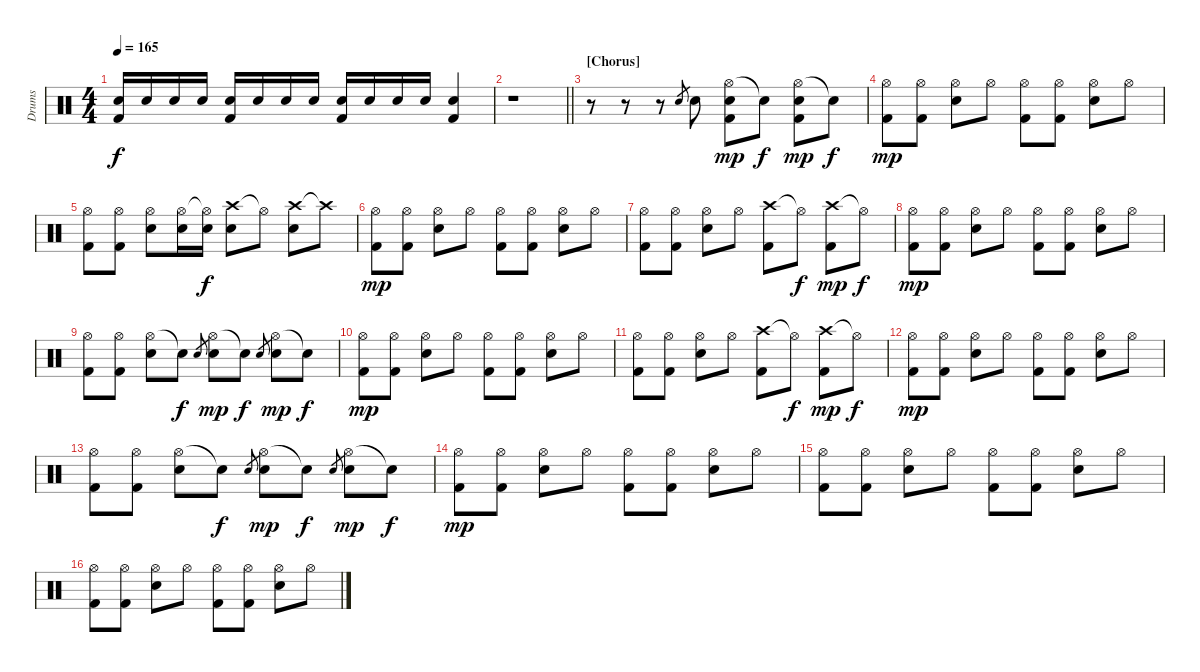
\track ("Drums" "Drums") {instrument percussion}
\staff {score}
\articulation defaults
\ts (4 4)
\tempo 165
\clef neutral
\ks c
("Electric Snare (hit)" "Kick (hit) 2").16{dy f} "Electric Snare (hit)".16 "Electric Snare (hit)".16 "Electric Snare (hit)".16 ("Electric Snare (hit)" "Kick (hit) 2").16 "Electric Snare (hit)".16 "Electric Snare (hit)".16 "Electric Snare (hit)".16 ("Electric Snare (hit)" "Kick (hit) 2").16 "Electric Snare (hit)".16 "Electric Snare (hit)".16 "Electric Snare (hit)".16 ("Electric Snare (hit)" "Kick (hit) 2").4 |
\barLineRight lightlight
r.1 |
\section ("" "[Chorus]")
r.8 r.8 r.8 "Electric Snare (hit)".8{gr} "Electric Snare (hit)".8 ("Hi-Hat (open)" "Electric Snare (hit)" "Kick (hit) 2").8{dy mp} "Snare (hit)"{t}.8{dy f} ("Hi-Hat (open)" "Electric Snare (hit)" "Kick (hit) 2").8{dy mp} "Snare (hit)"{t}.8{dy f} |
("Hi-Hat (open)" "Kick (hit) 2").8{dy mp} ("Hi-Hat (open)" "Kick (hit) 2").8 ("Hi-Hat (open)" "Electric Snare (hit)").8 "Hi-Hat (open)".8 ("Hi-Hat (open)" "Kick (hit) 2").8 ("Hi-Hat (open)" "Kick (hit) 2").8 ("Hi-Hat (open)" "Electric Snare (hit)").8 "Hi-Hat (open)".8 |
("Hi-Hat (open)" "Kick (hit) 2").8 ("Hi-Hat (open)" "Kick (hit) 2").8 ("Hi-Hat (open)" "Electric Snare (hit)").8 ("Hi-Hat (open)" "Electric Snare (hit)").16 ("Hi-Hat (open)"{t} "Electric Snare (hit)").16{dy f} ("Crash high (hit)" "Electric Snare (hit)").8 "Hi-Hat (open)"{t}.8 ("Crash high (hit)" "Electric Snare (hit)").8 "Crash high (hit)"{t}.8 |
("Hi-Hat (open)" "Kick (hit) 2").8{dy mp} ("Hi-Hat (open)" "Kick (hit) 2").8 ("Hi-Hat (open)" "Electric Snare (hit)").8 "Hi-Hat (open)".8 ("Hi-Hat (open)" "Kick (hit) 2").8 ("Hi-Hat (open)" "Kick (hit) 2").8 ("Hi-Hat (open)" "Electric Snare (hit)").8 "Hi-Hat (open)".8 |
("Hi-Hat (open)" "Kick (hit) 2").8 ("Hi-Hat (open)" "Kick (hit) 2").8 ("Hi-Hat (open)" "Electric Snare (hit)").8 "Hi-Hat (open)".8 ("Crash high (hit)" "Kick (hit) 2").8 "Hi-Hat (open)"{t}.8{dy f} ("Crash high (hit)" "Kick (hit) 2").8{dy mp} "Hi-Hat (open)"{t}.8{dy f} |
("Hi-Hat (open)" "Kick (hit) 2").8{dy mp} ("Hi-Hat (open)" "Kick (hit) 2").8 ("Hi-Hat (open)" "Electric Snare (hit)").8 "Hi-Hat (open)".8 ("Hi-Hat (open)" "Kick (hit) 2").8 ("Hi-Hat (open)" "Kick (hit) 2").8 ("Hi-Hat (open)" "Electric Snare (hit)").8 "Hi-Hat (open)".8 |
("Hi-Hat (open)" "Kick (hit) 2").8 ("Hi-Hat (open)" "Kick (hit) 2").8 ("Hi-Hat (open)" "Electric Snare (hit)").8 "Snare (hit)"{t}.8{dy f} "Electric Snare (hit)".8{gr} ("Hi-Hat (open)" "Electric Snare (hit)").8{dy mp} "Snare (hit)"{t}.8{dy f} "Electric Snare (hit)".8{gr} ("Hi-Hat (open)" "Electric Snare (hit)").8{dy mp} "Snare (hit)"{t}.8{dy f} |
("Hi-Hat (open)" "Kick (hit) 2").8{dy mp} ("Hi-Hat (open)" "Kick (hit) 2").8 ("Hi-Hat (open)" "Electric Snare (hit)").8 "Hi-Hat (open)".8 ("Hi-Hat (open)" "Kick (hit) 2").8 ("Hi-Hat (open)" "Kick (hit) 2").8 ("Hi-Hat (open)" "Electric Snare (hit)").8 "Hi-Hat (open)".8 |
("Hi-Hat (open)" "Kick (hit) 2").8 ("Hi-Hat (open)" "Kick (hit) 2").8 ("Hi-Hat (open)" "Electric Snare (hit)").8 "Hi-Hat (open)".8 ("Crash high (hit)" "Kick (hit) 2").8 "Hi-Hat (open)"{t}.8{dy f} ("Crash high (hit)" "Kick (hit) 2").8{dy mp} "Hi-Hat (open)"{t}.8{dy f} |
("Hi-Hat (open)" "Kick (hit) 2").8{dy mp} ("Hi-Hat (open)" "Kick (hit) 2").8 ("Hi-Hat (open)" "Electric Snare (hit)").8 "Hi-Hat (open)".8 ("Hi-Hat (open)" "Kick (hit) 2").8 ("Hi-Hat (open)" "Kick (hit) 2").8 ("Hi-Hat (open)" "Electric Snare (hit)").8 "Hi-Hat (open)".8 |
("Hi-Hat (open)" "Kick (hit) 2").8 ("Hi-Hat (open)" "Kick (hit) 2").8 ("Hi-Hat (open)" "Electric Snare (hit)").8 "Snare (hit)"{t}.8{dy f} "Electric Snare (hit)".8{gr} ("Hi-Hat (open)" "Electric Snare (hit)").8{dy mp} "Snare (hit)"{t}.8{dy f} "Electric Snare (hit)".8{gr} ("Hi-Hat (open)" "Electric Snare (hit)").8{dy mp} "Snare (hit)"{t}.8{dy f} |
("Hi-Hat (open)" "Kick (hit) 2").8{dy mp} ("Hi-Hat (open)" "Kick (hit) 2").8 ("Hi-Hat (open)" "Electric Snare (hit)").8 "Hi-Hat (open)".8 ("Hi-Hat (open)" "Kick (hit) 2").8 ("Hi-Hat (open)" "Kick (hit) 2").8 ("Hi-Hat (open)" "Electric Snare (hit)").8 "Hi-Hat (open)".8 |
("Hi-Hat (open)" "Kick (hit) 2").8 ("Hi-Hat (open)" "Kick (hit) 2").8 ("Hi-Hat (open)" "Electric Snare (hit)").8 "Hi-Hat (open)".8 ("Hi-Hat (open)" "Kick (hit) 2").8 ("Hi-Hat (open)" "Kick (hit) 2").8 ("Hi-Hat (open)" "Electric Snare (hit)").8 "Hi-Hat (open)".8 |
("Hi-Hat (open)" "Kick (hit) 2").8 ("Hi-Hat (open)" "Kick (hit) 2").8 ("Hi-Hat (open)" "Electric Snare (hit)").8 "Hi-Hat (open)".8 ("Hi-Hat (open)" "Kick (hit) 2").8 ("Hi-Hat (open)" "Kick (hit) 2").8 ("Hi-Hat (open)" "Electric Snare (hit)").8 "Hi-Hat (open)".8
